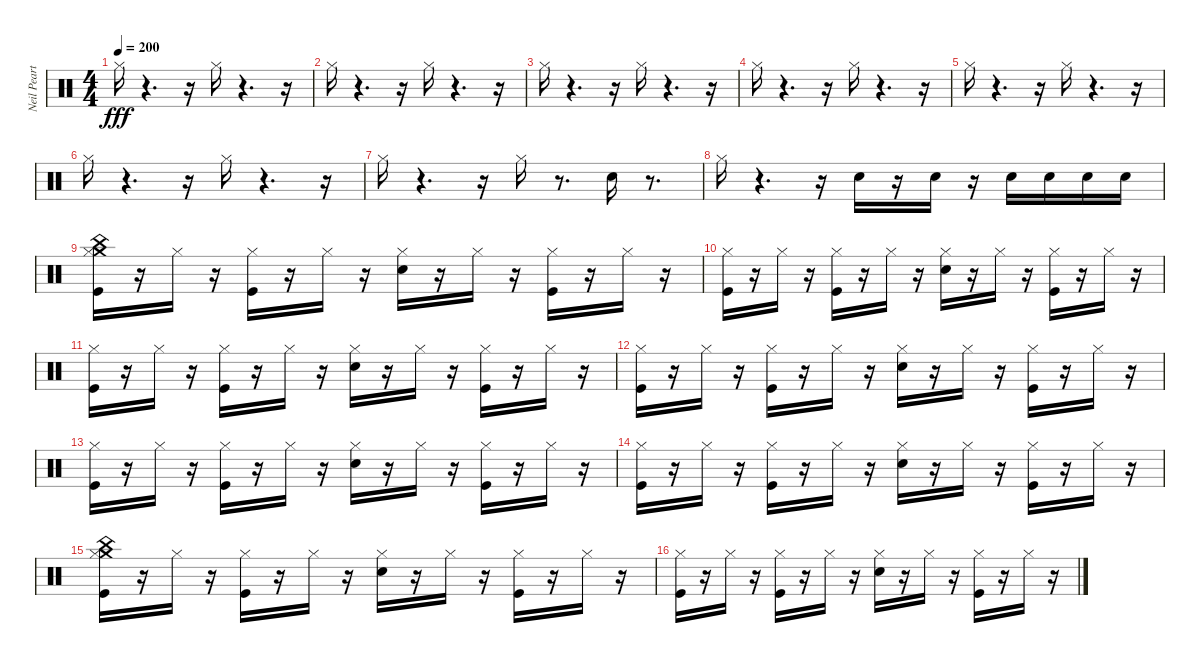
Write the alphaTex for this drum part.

\track ("Neil Peart" "Neil Peart") {instrument percussion}
\staff {score}
\articulation defaults
\ts (4 4)
\tempo 200
\clef neutral
\ks c "Hi-Hat (closed)".16{dy fff}
r.4{d} r.16 "Hi-Hat (closed)".16 r.4{d} r.16 |
"Hi-Hat (closed)".16 r.4{d} r.16 "Hi-Hat (closed)".16 r.4{d} r.16 |
"Hi-Hat (closed)".16 r.4{d} r.16 "Hi-Hat (closed)".16 r.4{d} r.16 |
"Hi-Hat (closed)".16 r.4{d} r.16 "Hi-Hat (closed)".16 r.4{d} r.16 |
"Hi-Hat (closed)".16 r.4{d} r.16 "Hi-Hat (closed)".16 r.4{d} r.16 |
"Hi-Hat (closed)".16 r.4{d} r.16 "Hi-Hat (closed)".16 r.4{d} r.16 |
"Hi-Hat (closed)".16 r.4{d} r.16 "Hi-Hat (closed)".16 r.8{d} "Electric Snare (hit)".16 r.8{d} |
"Hi-Hat (closed)".16 r.4{d} r.16 "Electric Snare (hit)".16 r.16 "Electric Snare (hit)".16 r.16 "Electric Snare (hit)".16 "Electric Snare (hit)".16 "Electric Snare (hit)".16 "Electric Snare (hit)".16 |
("Crash medium (hit)" "China (hit)" "Hi-Hat (closed)" "Kick (hit)").16 r.16 "Hi-Hat (closed)".16 r.16 ("Hi-Hat (closed)" "Kick (hit)").16 r.16 "Hi-Hat (closed)".16 r.16 ("Hi-Hat (closed)" "Snare (hit) 2").16 r.16 "Hi-Hat (closed)".16 r.16 ("Hi-Hat (closed)" "Kick (hit)").16 r.16 "Hi-Hat (closed)".16 r.16 |
("Hi-Hat (closed)" "Kick (hit)").16 r.16 "Hi-Hat (closed)".16 r.16 ("Hi-Hat (closed)" "Kick (hit)").16 r.16 "Hi-Hat (closed)".16 r.16 ("Hi-Hat (closed)" "Snare (hit) 2").16 r.16 "Hi-Hat (closed)".16 r.16 ("Hi-Hat (closed)" "Kick (hit)").16 r.16 "Hi-Hat (closed)".16 r.16 |
("Hi-Hat (closed)" "Kick (hit)").16 r.16 "Hi-Hat (closed)".16 r.16 ("Hi-Hat (closed)" "Kick (hit)").16 r.16 "Hi-Hat (closed)".16 r.16 ("Hi-Hat (closed)" "Snare (hit) 2").16 r.16 "Hi-Hat (closed)".16 r.16 ("Hi-Hat (closed)" "Kick (hit)").16 r.16 "Hi-Hat (closed)".16 r.16 |
("Hi-Hat (closed)" "Kick (hit)").16 r.16 "Hi-Hat (closed)".16 r.16 ("Hi-Hat (closed)" "Kick (hit)").16 r.16 "Hi-Hat (closed)".16 r.16 ("Hi-Hat (closed)" "Snare (hit) 2").16 r.16 "Hi-Hat (closed)".16 r.16 ("Hi-Hat (closed)" "Kick (hit)").16 r.16 "Hi-Hat (closed)".16 r.16 |
("Hi-Hat (closed)" "Kick (hit)").16 r.16 "Hi-Hat (closed)".16 r.16 ("Hi-Hat (closed)" "Kick (hit)").16 r.16 "Hi-Hat (closed)".16 r.16 ("Hi-Hat (closed)" "Snare (hit) 2").16 r.16 "Hi-Hat (closed)".16 r.16 ("Hi-Hat (closed)" "Kick (hit)").16 r.16 "Hi-Hat (closed)".16 r.16 |
("Hi-Hat (closed)" "Kick (hit)").16 r.16 "Hi-Hat (closed)".16 r.16 ("Hi-Hat (closed)" "Kick (hit)").16 r.16 "Hi-Hat (closed)".16 r.16 ("Hi-Hat (closed)" "Snare (hit) 2").16 r.16 "Hi-Hat (closed)".16 r.16 ("Hi-Hat (closed)" "Kick (hit)").16 r.16 "Hi-Hat (closed)".16 r.16 |
("Crash medium (hit)" "China (hit)" "Hi-Hat (closed)" "Kick (hit)").16 r.16 "Hi-Hat (closed)".16 r.16 ("Hi-Hat (closed)" "Kick (hit)").16 r.16 "Hi-Hat (closed)".16 r.16 ("Hi-Hat (closed)" "Snare (hit) 2").16 r.16 "Hi-Hat (closed)".16 r.16 ("Hi-Hat (closed)" "Kick (hit)").16 r.16 "Hi-Hat (closed)".16 r.16 |
("Hi-Hat (closed)" "Kick (hit)").16 r.16 "Hi-Hat (closed)".16 r.16 ("Hi-Hat (closed)" "Kick (hit)").16 r.16 "Hi-Hat (closed)".16 r.16 ("Hi-Hat (closed)" "Snare (hit) 2").16 r.16 "Hi-Hat (closed)".16 r.16 ("Hi-Hat (closed)" "Kick (hit)").16 r.16 "Hi-Hat (closed)".16 r.16
